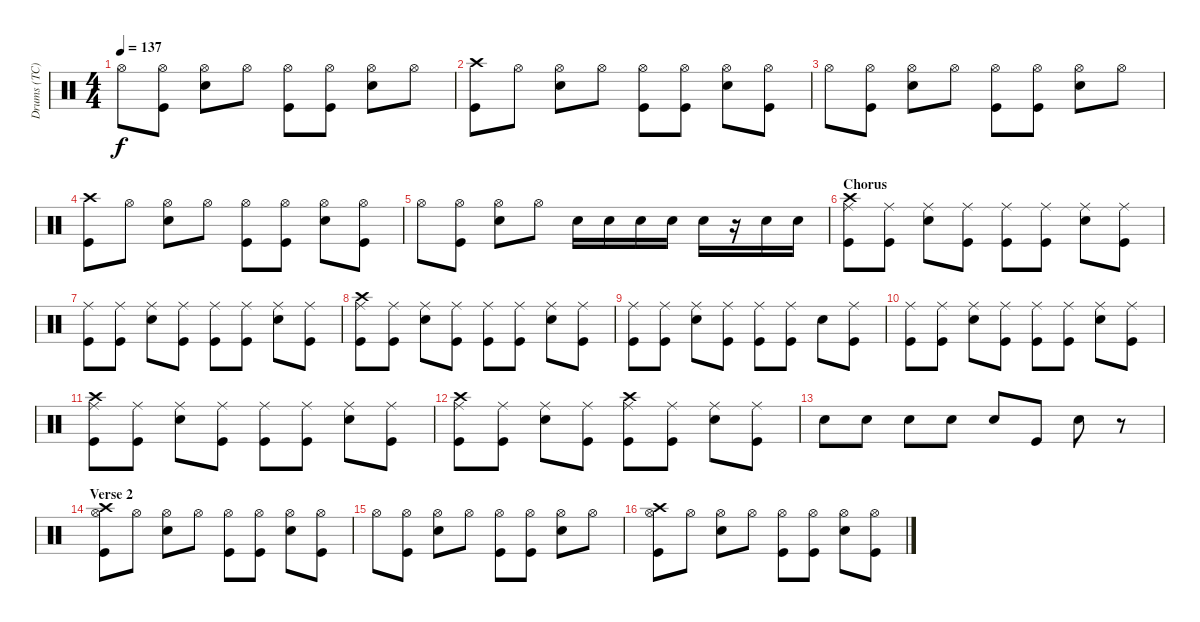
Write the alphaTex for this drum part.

\track ("Drums (TC)" "Drums (TC)") {instrument percussion}
\staff {score}
\articulation defaults
\ts (4 4)
\tempo 137
\clef neutral
\ks c "Hi-Hat (open)".8{dy f}
("Hi-Hat (open)" "Kick (hit)").8 ("Snare (hit) 2" "Hi-Hat (open)").8 "Hi-Hat (open)".8 ("Hi-Hat (open)" "Kick (hit)").8 ("Hi-Hat (open)" "Kick (hit)").8 ("Snare (hit) 2" "Hi-Hat (open)").8 "Hi-Hat (open)".8 |
("Crash high (hit)" "Kick (hit)").8 "Hi-Hat (open)".8 ("Snare (hit) 2" "Hi-Hat (open)").8 "Hi-Hat (open)".8 ("Hi-Hat (open)" "Kick (hit)").8 ("Hi-Hat (open)" "Kick (hit)").8 ("Snare (hit) 2" "Hi-Hat (open)").8 ("Hi-Hat (open)" "Kick (hit)").8 |
"Hi-Hat (open)".8 ("Hi-Hat (open)" "Kick (hit)").8 ("Snare (hit) 2" "Hi-Hat (open)").8 "Hi-Hat (open)".8 ("Hi-Hat (open)" "Kick (hit)").8 ("Hi-Hat (open)" "Kick (hit)").8 ("Snare (hit) 2" "Hi-Hat (open)").8 "Hi-Hat (open)".8 |
("Crash high (hit)" "Kick (hit)").8 "Hi-Hat (open)".8 ("Snare (hit) 2" "Hi-Hat (open)").8 "Hi-Hat (open)".8 ("Hi-Hat (open)" "Kick (hit)").8 ("Hi-Hat (open)" "Kick (hit)").8 ("Snare (hit) 2" "Hi-Hat (open)").8 ("Hi-Hat (open)" "Kick (hit)").8 |
"Hi-Hat (open)".8 ("Hi-Hat (open)" "Kick (hit)").8 ("Snare (hit) 2" "Hi-Hat (open)").8 "Hi-Hat (open)".8 "Snare (hit) 2".16 "Snare (hit) 2".16 "Snare (hit) 2".16 "Snare (hit) 2".16 "Snare (hit) 2".16 r.16 "Snare (hit) 2".16 "Snare (hit) 2".16 |
\section ("" "Chorus")
("Crash high (hit)" "Ride (middle)" "Kick (hit)").8 ("Ride (middle)" "Kick (hit)").8 ("Snare (hit) 2" "Ride (middle)").8 ("Ride (middle)" "Kick (hit)").8 ("Ride (middle)" "Kick (hit)").8 ("Ride (middle)" "Kick (hit)").8 ("Snare (hit) 2" "Ride (middle)").8 ("Ride (middle)" "Kick (hit)").8 |
("Ride (middle)" "Kick (hit)").8 ("Ride (middle)" "Kick (hit)").8 ("Snare (hit) 2" "Ride (middle)").8 ("Ride (middle)" "Kick (hit)").8 ("Ride (middle)" "Kick (hit)").8 ("Ride (middle)" "Kick (hit)").8 ("Snare (hit) 2" "Ride (middle)").8 ("Ride (middle)" "Kick (hit)").8 |
("Crash high (hit)" "Ride (middle)" "Kick (hit)").8 ("Ride (middle)" "Kick (hit)").8 ("Snare (hit) 2" "Ride (middle)").8 ("Ride (middle)" "Kick (hit)").8 ("Ride (middle)" "Kick (hit)").8 ("Ride (middle)" "Kick (hit)").8 ("Snare (hit) 2" "Ride (middle)").8 ("Ride (middle)" "Kick (hit)").8 |
("Ride (middle)" "Kick (hit)").8 ("Ride (middle)" "Kick (hit)").8 ("Snare (hit) 2" "Ride (middle)").8 ("Ride (middle)" "Kick (hit)").8 ("Ride (middle)" "Kick (hit)").8 ("Ride (middle)" "Kick (hit)").8 "Snare (hit) 2".8 ("Ride (middle)" "Kick (hit)").8 |
("Ride (middle)" "Kick (hit)").8 ("Ride (middle)" "Kick (hit)").8 ("Snare (hit) 2" "Ride (middle)").8 ("Ride (middle)" "Kick (hit)").8 ("Ride (middle)" "Kick (hit)").8 ("Ride (middle)" "Kick (hit)").8 ("Snare (hit) 2" "Ride (middle)").8 ("Ride (middle)" "Kick (hit)").8 |
("Crash high (hit)" "Ride (middle)" "Kick (hit)").8 ("Ride (middle)" "Kick (hit)").8 ("Snare (hit) 2" "Ride (middle)").8 ("Ride (middle)" "Kick (hit)").8 ("Ride (middle)" "Kick (hit)").8 ("Ride (middle)" "Kick (hit)").8 ("Snare (hit) 2" "Ride (middle)").8 ("Ride (middle)" "Kick (hit)").8 |
("Crash high (hit)" "Ride (middle)" "Kick (hit)").8 ("Ride (middle)" "Kick (hit)").8 ("Snare (hit) 2" "Ride (middle)").8 ("Ride (middle)" "Kick (hit)").8 ("Crash high (hit)" "Ride (middle)" "Kick (hit)").8 ("Ride (middle)" "Kick (hit)").8 ("Snare (hit) 2" "Ride (middle)").8 ("Ride (middle)" "Kick (hit)").8 |
"Snare (hit) 2".8 "Snare (hit) 2".8 "Snare (hit) 2".8 "Snare (hit) 2".8 "Snare (hit) 2".8 "Kick (hit)".8 "Snare (hit) 2".8 r.8 |
\section ("" "Verse 2")
("Crash high (hit)" "Hi-Hat (open)" "Kick (hit)").8 "Hi-Hat (open)".8 ("Snare (hit) 2" "Hi-Hat (open)").8 "Hi-Hat (open)".8 ("Hi-Hat (open)" "Kick (hit)").8 ("Hi-Hat (open)" "Kick (hit)").8 ("Snare (hit) 2" "Hi-Hat (open)").8 ("Hi-Hat (open)" "Kick (hit)").8 |
"Hi-Hat (open)".8 ("Hi-Hat (open)" "Kick (hit)").8 ("Snare (hit) 2" "Hi-Hat (open)").8 "Hi-Hat (open)".8 ("Hi-Hat (open)" "Kick (hit)").8 ("Hi-Hat (open)" "Kick (hit)").8 ("Snare (hit) 2" "Hi-Hat (open)").8 "Hi-Hat (open)".8 |
("Crash high (hit)" "Hi-Hat (open)" "Kick (hit)").8 "Hi-Hat (open)".8 ("Snare (hit) 2" "Hi-Hat (open)").8 "Hi-Hat (open)".8 ("Hi-Hat (open)" "Kick (hit)").8 ("Hi-Hat (open)" "Kick (hit)").8 ("Snare (hit) 2" "Hi-Hat (open)").8 ("Hi-Hat (open)" "Kick (hit)").8
